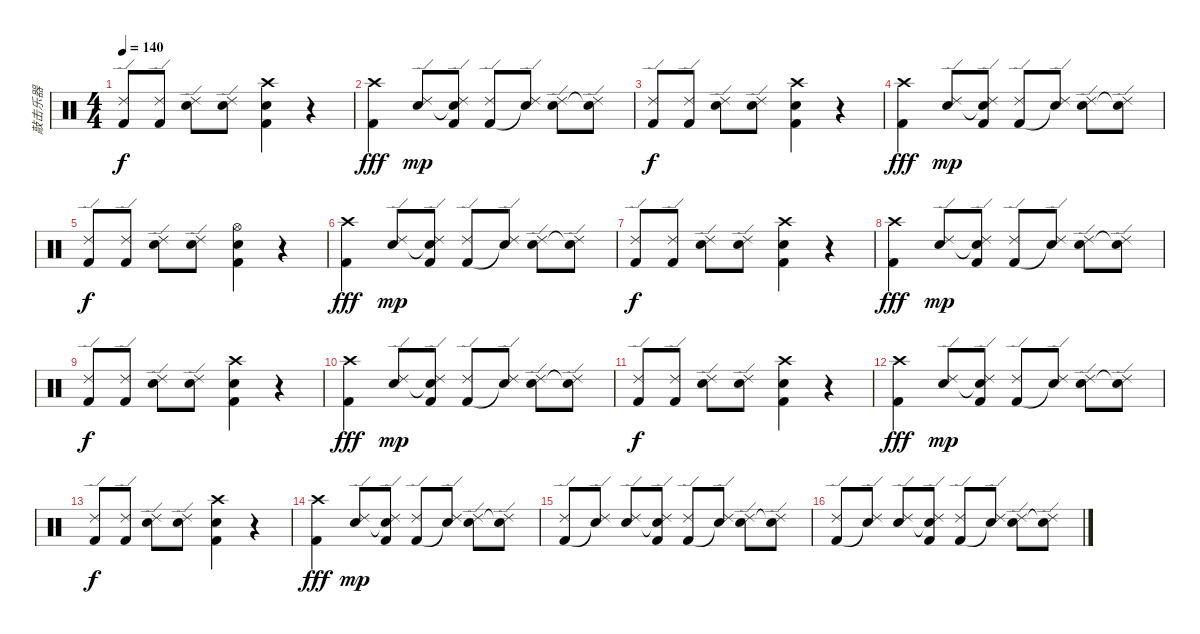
\track ("敲击乐器" "敲击乐器") {instrument percussion}
\staff {score}
\articulation defaults
\ts (4 4)
\tempo 140
\clef neutral
\ks c
("Kick (hit) 2" "Ride (edge) 2").8{dy f} ("Kick (hit) 2" "Ride (edge) 2").8 ("Snare (hit) 2" "Ride (edge) 2").8 ("Snare (hit) 2" "Ride (edge) 2").8 ("Crash high (hit)" "Snare (hit) 2" "Kick (hit) 2").4 r.4 |
("Kick (hit) 2" "Crash high (hit)").4{dy fff} ("Electric Snare (hit)" "Ride (edge) 2").8{dy mp} ("Snare (hit)"{t} "Kick (hit) 2" "Ride (edge) 2").8 ("Kick (hit) 2" "Ride (edge) 2").8 ("Snare (hit)"{t} "Ride (edge) 2").8 ("Electric Snare (hit)" "Ride (edge) 2").8 ("Snare (hit)"{t} "Ride (edge) 2").8 |
("Kick (hit) 2" "Ride (edge) 2").8{dy f} ("Kick (hit) 2" "Ride (edge) 2").8 ("Snare (hit) 2" "Ride (edge) 2").8 ("Snare (hit) 2" "Ride (edge) 2").8 ("Crash high (hit)" "Snare (hit) 2" "Kick (hit) 2").4 r.4 |
("Kick (hit) 2" "Crash high (hit)").4{dy fff} ("Electric Snare (hit)" "Ride (edge) 2").8{dy mp} ("Snare (hit)"{t} "Kick (hit) 2" "Ride (edge) 2").8 ("Kick (hit) 2" "Ride (edge) 2").8 ("Snare (hit)"{t} "Ride (edge) 2").8 ("Electric Snare (hit)" "Ride (edge) 2").8 ("Snare (hit)"{t} "Ride (edge) 2").8 |
("Kick (hit) 2" "Ride (edge) 2").8{dy f} ("Kick (hit) 2" "Ride (edge) 2").8 ("Snare (hit) 2" "Ride (edge) 2").8 ("Snare (hit) 2" "Ride (edge) 2").8 ("Hi-Hat (open)" "Snare (hit) 2" "Kick (hit) 2").4 r.4 |
("Kick (hit) 2" "Crash high (hit)").4{dy fff} ("Electric Snare (hit)" "Ride (edge) 2").8{dy mp} ("Snare (hit)"{t} "Kick (hit) 2" "Ride (edge) 2").8 ("Kick (hit) 2" "Ride (edge) 2").8 ("Snare (hit)"{t} "Ride (edge) 2").8 ("Electric Snare (hit)" "Ride (edge) 2").8 ("Snare (hit)"{t} "Ride (edge) 2").8 |
("Kick (hit) 2" "Ride (edge) 2").8{dy f} ("Kick (hit) 2" "Ride (edge) 2").8 ("Snare (hit) 2" "Ride (edge) 2").8 ("Snare (hit) 2" "Ride (edge) 2").8 ("Crash high (hit)" "Snare (hit) 2" "Kick (hit) 2").4 r.4 |
("Kick (hit) 2" "Crash high (hit)").4{dy fff} ("Electric Snare (hit)" "Ride (edge) 2").8{dy mp} ("Snare (hit)"{t} "Kick (hit) 2" "Ride (edge) 2").8 ("Kick (hit) 2" "Ride (edge) 2").8 ("Snare (hit)"{t} "Ride (edge) 2").8 ("Electric Snare (hit)" "Ride (edge) 2").8 ("Snare (hit)"{t} "Ride (edge) 2").8 |
("Kick (hit) 2" "Ride (edge) 2").8{dy f} ("Kick (hit) 2" "Ride (edge) 2").8 ("Snare (hit) 2" "Ride (edge) 2").8 ("Snare (hit) 2" "Ride (edge) 2").8 ("Crash high (hit)" "Snare (hit) 2" "Kick (hit) 2").4 r.4 |
("Kick (hit) 2" "Crash high (hit)").4{dy fff} ("Electric Snare (hit)" "Ride (edge) 2").8{dy mp} ("Snare (hit)"{t} "Kick (hit) 2" "Ride (edge) 2").8 ("Kick (hit) 2" "Ride (edge) 2").8 ("Snare (hit)"{t} "Ride (edge) 2").8 ("Electric Snare (hit)" "Ride (edge) 2").8 ("Snare (hit)"{t} "Ride (edge) 2").8 |
("Kick (hit) 2" "Ride (edge) 2").8{dy f} ("Kick (hit) 2" "Ride (edge) 2").8 ("Snare (hit) 2" "Ride (edge) 2").8 ("Snare (hit) 2" "Ride (edge) 2").8 ("Crash high (hit)" "Snare (hit) 2" "Kick (hit) 2").4 r.4 |
("Kick (hit) 2" "Crash high (hit)").4{dy fff} ("Electric Snare (hit)" "Ride (edge) 2").8{dy mp} ("Snare (hit)"{t} "Kick (hit) 2" "Ride (edge) 2").8 ("Kick (hit) 2" "Ride (edge) 2").8 ("Snare (hit)"{t} "Ride (edge) 2").8 ("Electric Snare (hit)" "Ride (edge) 2").8 ("Snare (hit)"{t} "Ride (edge) 2").8 |
("Kick (hit) 2" "Ride (edge) 2").8{dy f} ("Kick (hit) 2" "Ride (edge) 2").8 ("Snare (hit) 2" "Ride (edge) 2").8 ("Snare (hit) 2" "Ride (edge) 2").8 ("Crash high (hit)" "Snare (hit) 2" "Kick (hit) 2").4 r.4 |
("Kick (hit) 2" "Crash high (hit)").4{dy fff} ("Electric Snare (hit)" "Ride (edge) 2").8{dy mp} ("Snare (hit)"{t} "Kick (hit) 2" "Ride (edge) 2").8 ("Kick (hit) 2" "Ride (edge) 2").8 ("Snare (hit)"{t} "Ride (edge) 2").8 ("Electric Snare (hit)" "Ride (edge) 2").8 ("Snare (hit)"{t} "Ride (edge) 2").8 |
("Kick (hit) 2" "Ride (edge) 2").8 ("Snare (hit)"{t} "Ride (edge) 2").8 ("Electric Snare (hit)" "Ride (edge) 2").8 ("Snare (hit)"{t} "Kick (hit) 2" "Ride (edge) 2").8 ("Kick (hit) 2" "Ride (edge) 2").8 ("Snare (hit)"{t} "Ride (edge) 2").8 ("Electric Snare (hit)" "Ride (edge) 2").8 ("Snare (hit)"{t} "Ride (edge) 2").8 |
("Kick (hit) 2" "Ride (edge) 2").8 ("Snare (hit)"{t} "Ride (edge) 2").8 ("Electric Snare (hit)" "Ride (edge) 2").8 ("Snare (hit)"{t} "Kick (hit) 2" "Ride (edge) 2").8 ("Kick (hit) 2" "Ride (edge) 2").8 ("Snare (hit)"{t} "Ride (edge) 2").8 ("Electric Snare (hit)" "Ride (edge) 2").8 ("Snare (hit)"{t} "Ride (edge) 2").8
